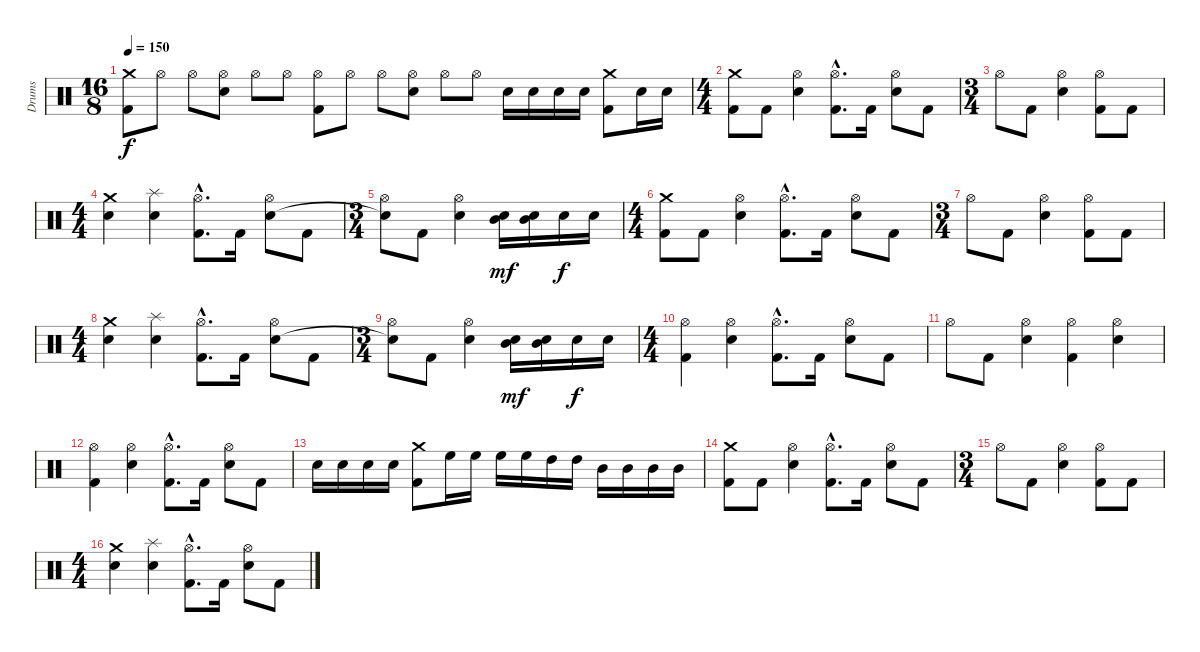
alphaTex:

\track ("Drums" "Drums") {instrument percussion}
\staff {score}
\articulation defaults
\ts (16 8)
\tempo 150
\clef neutral
\ks c
("Crash medium (hit)" "Kick (hit) 2").8{dy f} "Hi-Hat (open)".8 "Hi-Hat (open)".8 ("Hi-Hat (open)" "Electric Snare (hit)").8 "Hi-Hat (open)".8 "Hi-Hat (open)".8 ("Hi-Hat (open)" "Kick (hit) 2").8 "Hi-Hat (open)".8 "Hi-Hat (open)".8 ("Hi-Hat (open)" "Electric Snare (hit)").8 "Hi-Hat (open)".8 "Hi-Hat (open)".8 "Electric Snare (hit)".16 "Electric Snare (hit)".16 "Electric Snare (hit)".16 "Electric Snare (hit)".16 ("Crash medium (hit)" "Kick (hit) 2").8 "Electric Snare (hit)".16 "Electric Snare (hit)".16 |
\ts (4 4)
("Crash medium (hit)" "Kick (hit) 2").8 "Kick (hit) 2".8 ("Hi-Hat (open)" "Electric Snare (hit)").4 ("Hi-Hat (open)"{hac} "Kick (hit) 2"{hac}).8{d} "Kick (hit) 2".16 ("Hi-Hat (open)" "Electric Snare (hit)").8 "Kick (hit) 2".8 |
\ts (3 4)
"Hi-Hat (open)".8 "Kick (hit) 2".8 ("Hi-Hat (open)" "Electric Snare (hit)").4 ("Hi-Hat (open)" "Kick (hit) 2").8 "Kick (hit) 2".8 |
\ts (4 4)
("Crash medium (hit)" "Electric Snare (hit)").4 ("Splash (hit)" "Electric Snare (hit)").4 ("Hi-Hat (open)"{hac} "Kick (hit) 2"{hac}).8{d} "Kick (hit) 2".16 ("Hi-Hat (open)" "Electric Snare (hit)").8 "Kick (hit) 2".8 |
\ts (3 4)
("Hi-Hat (open)" "Snare (hit)"{t}).8 "Kick (hit) 2".8 ("Hi-Hat (open)" "Electric Snare (hit)").4 ("Mid Tom (hit)" "Electric Snare (hit)").16{dy mf} ("Mid Tom (hit)" "Electric Snare (hit)").16 "Electric Snare (hit)".16{dy f} "Electric Snare (hit)".16 |
\ts (4 4)
("Crash medium (hit)" "Kick (hit) 2").8 "Kick (hit) 2".8 ("Hi-Hat (open)" "Electric Snare (hit)").4 ("Hi-Hat (open)"{hac} "Kick (hit) 2"{hac}).8{d} "Kick (hit) 2".16 ("Hi-Hat (open)" "Electric Snare (hit)").8 "Kick (hit) 2".8 |
\ts (3 4)
"Hi-Hat (open)".8 "Kick (hit) 2".8 ("Hi-Hat (open)" "Electric Snare (hit)").4 ("Hi-Hat (open)" "Kick (hit) 2").8 "Kick (hit) 2".8 |
\ts (4 4)
("Crash medium (hit)" "Electric Snare (hit)").4 ("Splash (hit)" "Electric Snare (hit)").4 ("Hi-Hat (open)"{hac} "Kick (hit) 2"{hac}).8{d} "Kick (hit) 2".16 ("Hi-Hat (open)" "Electric Snare (hit)").8 "Kick (hit) 2".8 |
\ts (3 4)
("Hi-Hat (open)" "Snare (hit)"{t}).8 "Kick (hit) 2".8 ("Hi-Hat (open)" "Electric Snare (hit)").4 ("Mid Tom (hit)" "Electric Snare (hit)").16{dy mf} ("Mid Tom (hit)" "Electric Snare (hit)").16 "Electric Snare (hit)".16{dy f} "Electric Snare (hit)".16 |
\ts (4 4)
("Hi-Hat (open)" "Kick (hit) 2").4 ("Hi-Hat (open)" "Electric Snare (hit)").4 ("Hi-Hat (open)"{hac} "Kick (hit) 2"{hac}).8{d} "Kick (hit) 2".16 ("Hi-Hat (open)" "Electric Snare (hit)").8 "Kick (hit) 2".8 |
"Hi-Hat (open)".8 "Kick (hit) 2".8 ("Hi-Hat (open)" "Electric Snare (hit)").4 ("Hi-Hat (open)" "Kick (hit) 2").4 ("Hi-Hat (open)" "Electric Snare (hit)").4 |
("Hi-Hat (open)" "Kick (hit) 2").4 ("Hi-Hat (open)" "Electric Snare (hit)").4 ("Hi-Hat (open)"{hac} "Kick (hit) 2"{hac}).8{d} "Kick (hit) 2".16 ("Hi-Hat (open)" "Electric Snare (hit)").8 "Kick (hit) 2".8 |
"Electric Snare (hit)".16 "Electric Snare (hit)".16 "Electric Snare (hit)".16 "Electric Snare (hit)".16 ("Crash medium (hit)" "Kick (hit) 2").8 "High Floor Tom (hit)".16 "High Floor Tom (hit)".16 "High Floor Tom (hit)".16 "High Floor Tom (hit)".16 "High Tom (hit)".16 "High Tom (hit)".16 "Mid Tom (hit)".16 "Mid Tom (hit)".16 "Mid Tom (hit)".16 "Mid Tom (hit)".16 |
("Crash medium (hit)" "Kick (hit) 2").8 "Kick (hit) 2".8 ("Hi-Hat (open)" "Electric Snare (hit)").4 ("Hi-Hat (open)"{hac} "Kick (hit) 2"{hac}).8{d} "Kick (hit) 2".16 ("Hi-Hat (open)" "Electric Snare (hit)").8 "Kick (hit) 2".8 |
\ts (3 4)
"Hi-Hat (open)".8 "Kick (hit) 2".8 ("Hi-Hat (open)" "Electric Snare (hit)").4 ("Hi-Hat (open)" "Kick (hit) 2").8 "Kick (hit) 2".8 |
\ts (4 4)
("Crash medium (hit)" "Electric Snare (hit)").4 ("Splash (hit)" "Electric Snare (hit)").4 ("Hi-Hat (open)"{hac} "Kick (hit) 2"{hac}).8{d} "Kick (hit) 2".16 ("Hi-Hat (open)" "Electric Snare (hit)").8 "Kick (hit) 2".8
